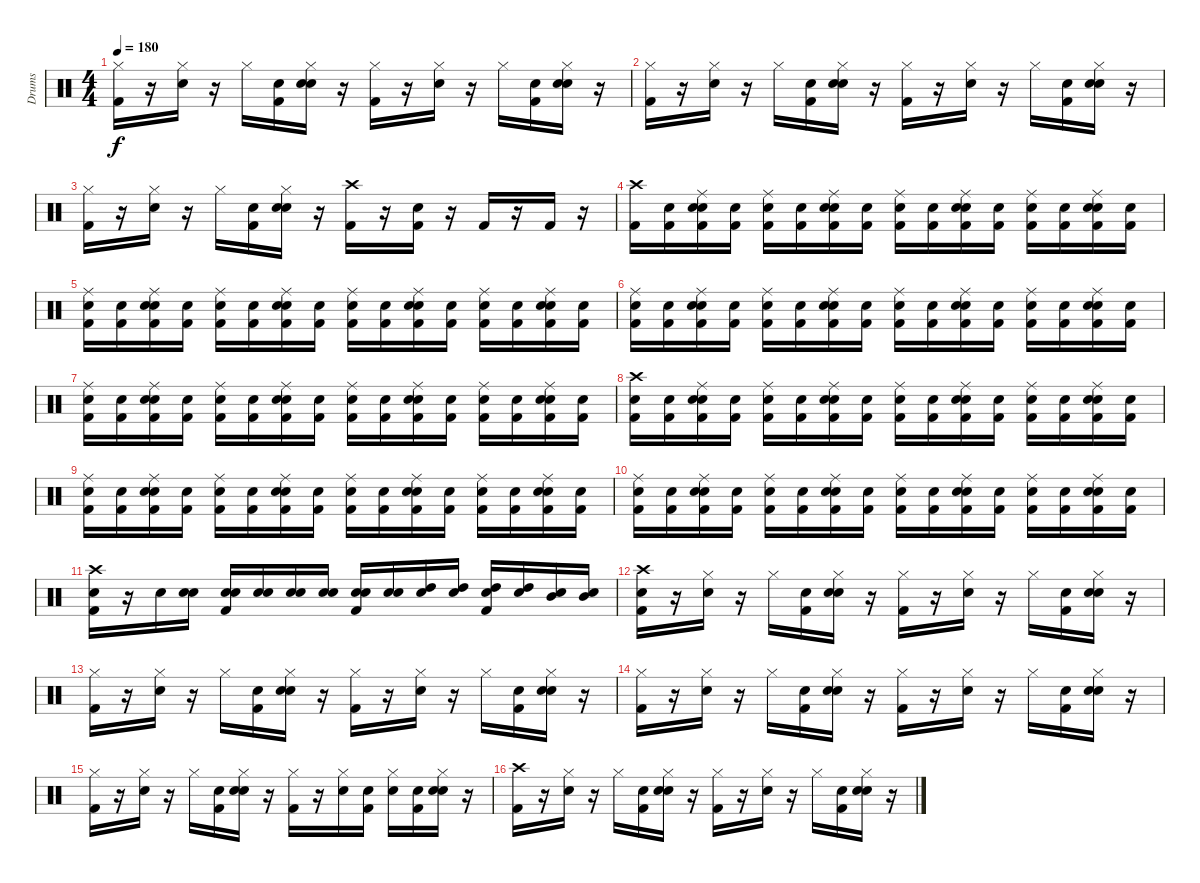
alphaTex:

\track ("Drums" "Drums") {instrument percussion}
\staff {score}
\articulation defaults
\ts (4 4)
\tempo 180
\clef neutral
\ks c
("Kick (hit) 2" "Hi-Hat (closed)").16{dy f} r.16 ("Snare (hit) 2" "Hi-Hat (closed)").16 r.16 "Hi-Hat (closed)".16 ("Snare (hit)" "Kick (hit) 2").16 ("Snare (hit)" "Snare (hit) 2" "Hi-Hat (closed)").16 r.16 ("Kick (hit) 2" "Hi-Hat (closed)").16 r.16 ("Snare (hit) 2" "Hi-Hat (closed)").16 r.16 "Hi-Hat (closed)".16 ("Snare (hit)" "Kick (hit) 2").16 ("Snare (hit)" "Snare (hit) 2" "Hi-Hat (closed)").16 r.16 |
("Kick (hit) 2" "Hi-Hat (closed)").16 r.16 ("Snare (hit) 2" "Hi-Hat (closed)").16 r.16 "Hi-Hat (closed)".16 ("Snare (hit)" "Kick (hit) 2").16 ("Snare (hit)" "Snare (hit) 2" "Hi-Hat (closed)").16 r.16 ("Kick (hit) 2" "Hi-Hat (closed)").16 r.16 ("Snare (hit) 2" "Hi-Hat (closed)").16 r.16 "Hi-Hat (closed)".16 ("Snare (hit)" "Kick (hit) 2").16 ("Snare (hit)" "Snare (hit) 2" "Hi-Hat (closed)").16 r.16 |
("Kick (hit) 2" "Hi-Hat (closed)").16 r.16 ("Snare (hit) 2" "Hi-Hat (closed)").16 r.16 "Hi-Hat (closed)".16 ("Snare (hit)" "Kick (hit) 2").16 ("Snare (hit)" "Snare (hit) 2" "Hi-Hat (closed)").16 r.16 ("Kick (hit) 2" "Crash high (hit)").16 r.16 ("Kick (hit) 2" "Snare (hit) 2").16 r.16 "Kick (hit) 2".16 r.16 "Kick (hit) 2".16 r.16 |
("Kick (hit) 2" "Crash high (hit)").16 ("Snare (hit)" "Kick (hit) 2").16 ("Snare (hit)" "Snare (hit) 2" "Kick (hit) 2" "Ride (middle)").16 ("Snare (hit)" "Kick (hit) 2").16 ("Snare (hit)" "Kick (hit) 2" "Ride (middle)").16 ("Snare (hit)" "Kick (hit) 2").16 ("Snare (hit)" "Snare (hit) 2" "Kick (hit) 2" "Ride (middle)").16 ("Snare (hit)" "Kick (hit) 2").16 ("Snare (hit)" "Kick (hit) 2" "Ride (middle)").16 ("Snare (hit)" "Kick (hit) 2").16 ("Snare (hit)" "Kick (hit) 2" "Ride (middle)" "Snare (hit) 2").16 ("Snare (hit)" "Kick (hit) 2").16 ("Snare (hit)" "Kick (hit) 2" "Ride (middle)").16 ("Snare (hit)" "Kick (hit) 2").16 ("Snare (hit)" "Snare (hit) 2" "Kick (hit) 2" "Ride (middle)").16 ("Snare (hit)" "Kick (hit) 2").16 |
("Snare (hit)" "Kick (hit) 2" "Ride (middle)").16 ("Snare (hit)" "Kick (hit) 2").16 ("Snare (hit)" "Snare (hit) 2" "Kick (hit) 2" "Ride (middle)").16 ("Snare (hit)" "Kick (hit) 2").16 ("Snare (hit)" "Kick (hit) 2" "Ride (middle)").16 ("Snare (hit)" "Kick (hit) 2").16 ("Snare (hit)" "Snare (hit) 2" "Kick (hit) 2" "Ride (middle)").16 ("Snare (hit)" "Kick (hit) 2").16 ("Snare (hit)" "Kick (hit) 2" "Ride (middle)").16 ("Snare (hit)" "Kick (hit) 2").16 ("Snare (hit)" "Snare (hit) 2" "Kick (hit) 2" "Ride (middle)").16 ("Snare (hit)" "Kick (hit) 2").16 ("Snare (hit)" "Kick (hit) 2" "Ride (middle)").16 ("Snare (hit)" "Kick (hit) 2").16 ("Snare (hit)" "Snare (hit) 2" "Kick (hit) 2" "Ride (middle)").16 ("Snare (hit)" "Kick (hit) 2").16 |
("Snare (hit)" "Kick (hit) 2" "Ride (middle)").16 ("Snare (hit)" "Kick (hit) 2").16 ("Snare (hit)" "Snare (hit) 2" "Kick (hit) 2" "Ride (middle)").16 ("Snare (hit)" "Kick (hit) 2").16 ("Snare (hit)" "Kick (hit) 2" "Ride (middle)").16 ("Snare (hit)" "Kick (hit) 2").16 ("Snare (hit)" "Snare (hit) 2" "Kick (hit) 2" "Ride (middle)").16 ("Snare (hit)" "Kick (hit) 2").16 ("Snare (hit)" "Kick (hit) 2" "Ride (middle)").16 ("Snare (hit)" "Kick (hit) 2").16 ("Snare (hit)" "Snare (hit) 2" "Kick (hit) 2" "Ride (middle)").16 ("Snare (hit)" "Kick (hit) 2").16 ("Snare (hit)" "Kick (hit) 2" "Ride (middle)").16 ("Snare (hit)" "Kick (hit) 2").16 ("Snare (hit)" "Snare (hit) 2" "Kick (hit) 2" "Ride (middle)").16 ("Snare (hit)" "Kick (hit) 2").16 |
("Snare (hit)" "Kick (hit) 2" "Ride (middle)").16 ("Snare (hit)" "Kick (hit) 2").16 ("Snare (hit)" "Snare (hit) 2" "Kick (hit) 2" "Ride (middle)").16 ("Snare (hit)" "Kick (hit) 2").16 ("Snare (hit)" "Kick (hit) 2" "Ride (middle)").16 ("Snare (hit)" "Kick (hit) 2").16 ("Snare (hit)" "Snare (hit) 2" "Kick (hit) 2" "Ride (middle)").16 ("Snare (hit)" "Kick (hit) 2").16 ("Snare (hit)" "Kick (hit) 2" "Ride (middle)").16 ("Snare (hit)" "Kick (hit) 2").16 ("Snare (hit)" "Snare (hit) 2" "Kick (hit) 2" "Ride (middle)").16 ("Snare (hit)" "Kick (hit) 2").16 ("Snare (hit)" "Kick (hit) 2" "Ride (middle)").16 ("Snare (hit)" "Kick (hit) 2").16 ("Snare (hit)" "Snare (hit) 2" "Kick (hit) 2" "Ride (middle)").16 ("Snare (hit)" "Kick (hit) 2").16 |
("Snare (hit)" "Kick (hit) 2" "Crash high (hit)").16 ("Snare (hit)" "Kick (hit) 2").16 ("Snare (hit)" "Snare (hit) 2" "Kick (hit) 2" "Ride (middle)").16 ("Snare (hit)" "Kick (hit) 2").16 ("Snare (hit)" "Kick (hit) 2" "Ride (middle)").16 ("Snare (hit)" "Kick (hit) 2").16 ("Snare (hit)" "Snare (hit) 2" "Kick (hit) 2" "Ride (middle)").16 ("Snare (hit)" "Kick (hit) 2").16 ("Snare (hit)" "Kick (hit) 2" "Ride (middle)").16 ("Snare (hit)" "Kick (hit) 2").16 ("Snare (hit)" "Kick (hit) 2" "Ride (middle)" "Snare (hit) 2").16 ("Snare (hit)" "Kick (hit) 2").16 ("Snare (hit)" "Kick (hit) 2" "Ride (middle)").16 ("Snare (hit)" "Kick (hit) 2").16 ("Snare (hit)" "Snare (hit) 2" "Kick (hit) 2" "Ride (middle)").16 ("Snare (hit)" "Kick (hit) 2").16 |
("Snare (hit)" "Kick (hit) 2" "Ride (middle)").16 ("Snare (hit)" "Kick (hit) 2").16 ("Snare (hit)" "Snare (hit) 2" "Kick (hit) 2" "Ride (middle)").16 ("Snare (hit)" "Kick (hit) 2").16 ("Snare (hit)" "Kick (hit) 2" "Ride (middle)").16 ("Snare (hit)" "Kick (hit) 2").16 ("Snare (hit)" "Snare (hit) 2" "Kick (hit) 2" "Ride (middle)").16 ("Snare (hit)" "Kick (hit) 2").16 ("Snare (hit)" "Kick (hit) 2" "Ride (middle)").16 ("Snare (hit)" "Kick (hit) 2").16 ("Snare (hit)" "Snare (hit) 2" "Kick (hit) 2" "Ride (middle)").16 ("Snare (hit)" "Kick (hit) 2").16 ("Snare (hit)" "Kick (hit) 2" "Ride (middle)").16 ("Snare (hit)" "Kick (hit) 2").16 ("Snare (hit)" "Snare (hit) 2" "Kick (hit) 2" "Ride (middle)").16 ("Snare (hit)" "Kick (hit) 2").16 |
("Snare (hit)" "Kick (hit) 2" "Ride (middle)").16 ("Snare (hit)" "Kick (hit) 2").16 ("Snare (hit)" "Snare (hit) 2" "Kick (hit) 2" "Ride (middle)").16 ("Snare (hit)" "Kick (hit) 2").16 ("Snare (hit)" "Kick (hit) 2" "Ride (middle)").16 ("Snare (hit)" "Kick (hit) 2").16 ("Snare (hit)" "Snare (hit) 2" "Kick (hit) 2" "Ride (middle)").16 ("Snare (hit)" "Kick (hit) 2").16 ("Snare (hit)" "Kick (hit) 2" "Ride (middle)").16 ("Snare (hit)" "Kick (hit) 2").16 ("Snare (hit)" "Snare (hit) 2" "Kick (hit) 2" "Ride (middle)").16 ("Snare (hit)" "Kick (hit) 2").16 ("Snare (hit)" "Kick (hit) 2" "Ride (middle)").16 ("Snare (hit)" "Kick (hit) 2").16 ("Snare (hit)" "Snare (hit) 2" "Kick (hit) 2" "Ride (middle)").16 ("Snare (hit)" "Kick (hit) 2").16 |
("Snare (hit)" "Kick (hit) 2" "Crash high (hit)").16 r.16 "Snare (hit) 2".16 ("Snare (hit)" "Snare (hit) 2").16 ("Snare (hit)" "Snare (hit) 2" "Kick (hit) 2").16 ("Snare (hit)" "Snare (hit) 2").16 ("Snare (hit)" "Snare (hit) 2").16 ("Snare (hit)" "Snare (hit) 2").16 ("Snare (hit)" "Snare (hit) 2" "Kick (hit) 2").16 ("Snare (hit)" "Snare (hit) 2").16 ("Snare (hit)" "High Tom (hit)").16 ("Snare (hit)" "High Tom (hit)").16 ("Snare (hit)" "High Tom (hit)" "Kick (hit) 2").16 ("Snare (hit)" "High Tom (hit)").16 ("Snare (hit)" "Mid Tom (hit)").16 ("Snare (hit)" "Mid Tom (hit)").16 |
("Snare (hit)" "Crash high (hit)" "Kick (hit) 2").16 r.16 ("Snare (hit) 2" "Hi-Hat (closed)").16 r.16 "Hi-Hat (closed)".16 ("Snare (hit)" "Kick (hit) 2").16 ("Snare (hit)" "Snare (hit) 2" "Hi-Hat (closed)").16 r.16 ("Kick (hit) 2" "Hi-Hat (closed)").16 r.16 ("Snare (hit) 2" "Hi-Hat (closed)").16 r.16 "Hi-Hat (closed)".16 ("Snare (hit)" "Kick (hit) 2").16 ("Snare (hit)" "Snare (hit) 2" "Hi-Hat (closed)").16 r.16 |
("Kick (hit) 2" "Hi-Hat (closed)").16 r.16 ("Snare (hit) 2" "Hi-Hat (closed)").16 r.16 "Hi-Hat (closed)".16 ("Snare (hit)" "Kick (hit) 2").16 ("Snare (hit)" "Snare (hit) 2" "Hi-Hat (closed)").16 r.16 ("Kick (hit) 2" "Hi-Hat (closed)").16 r.16 ("Snare (hit) 2" "Hi-Hat (closed)").16 r.16 "Hi-Hat (closed)".16 ("Snare (hit)" "Kick (hit) 2").16 ("Snare (hit)" "Snare (hit) 2" "Hi-Hat (closed)").16 r.16 |
("Kick (hit) 2" "Hi-Hat (closed)").16 r.16 ("Snare (hit) 2" "Hi-Hat (closed)").16 r.16 "Hi-Hat (closed)".16 ("Snare (hit)" "Kick (hit) 2").16 ("Snare (hit)" "Snare (hit) 2" "Hi-Hat (closed)").16 r.16 ("Kick (hit) 2" "Hi-Hat (closed)").16 r.16 ("Snare (hit) 2" "Hi-Hat (closed)").16 r.16 "Hi-Hat (closed)".16 ("Snare (hit)" "Kick (hit) 2").16 ("Snare (hit)" "Snare (hit) 2" "Hi-Hat (closed)").16 r.16 |
("Kick (hit) 2" "Hi-Hat (closed)").16 r.16 ("Snare (hit) 2" "Hi-Hat (closed)").16 r.16 "Hi-Hat (closed)".16 ("Snare (hit)" "Kick (hit) 2").16 ("Snare (hit)" "Snare (hit) 2" "Hi-Hat (closed)").16 r.16 ("Kick (hit) 2" "Hi-Hat (closed)").16 r.16 ("Snare (hit) 2" "Hi-Hat (closed)").16 ("Snare (hit)" "Kick (hit) 2").16 ("Snare (hit)" "Hi-Hat (closed)").16 ("Snare (hit)" "Kick (hit) 2").16 ("Snare (hit)" "Snare (hit) 2" "Hi-Hat (closed)").16 r.16 |
("Kick (hit) 2" "Crash high (hit)").16 r.16 ("Hi-Hat (closed)" "Snare (hit) 2").16 r.16 "Hi-Hat (closed)".16 ("Snare (hit)" "Kick (hit) 2").16 ("Snare (hit)" "Snare (hit) 2" "Hi-Hat (closed)").16 r.16 ("Kick (hit) 2" "Hi-Hat (closed)").16 r.16 ("Snare (hit) 2" "Hi-Hat (closed)").16 r.16 "Hi-Hat (closed)".16 ("Snare (hit)" "Kick (hit) 2").16 ("Snare (hit)" "Snare (hit) 2" "Hi-Hat (closed)").16 r.16
